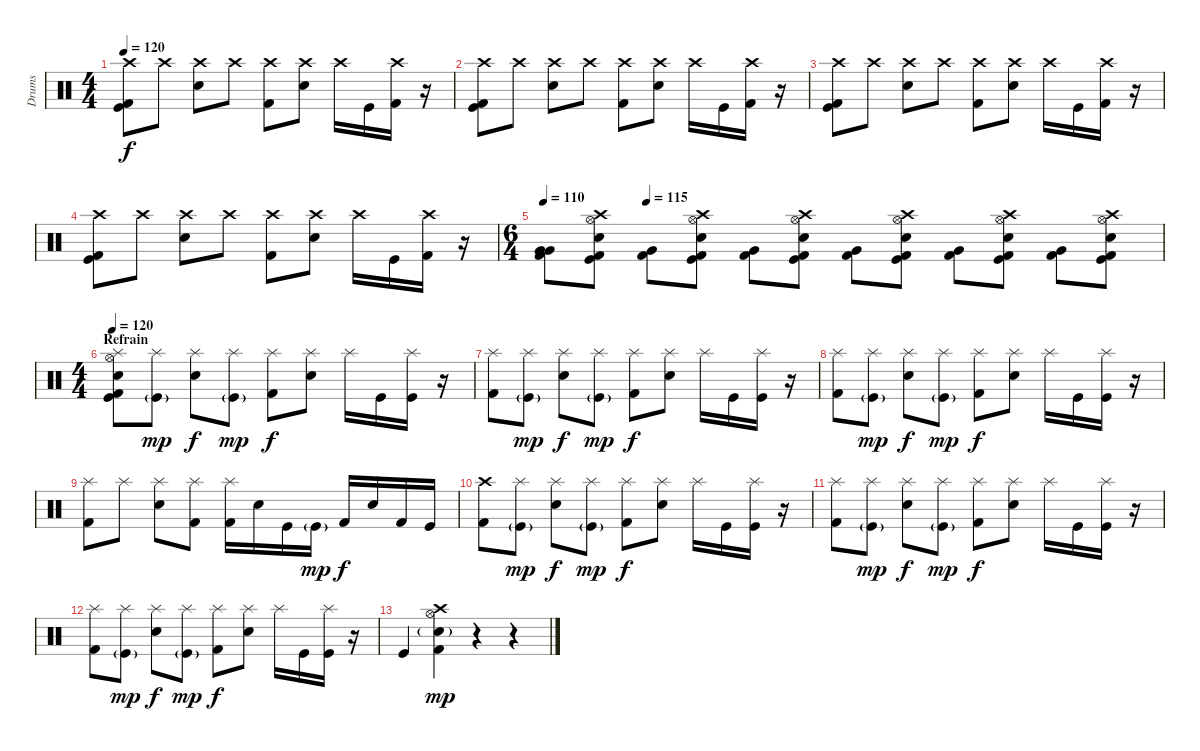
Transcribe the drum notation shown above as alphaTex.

\track ("Drums" "Drums") {instrument percussion}
\staff {score}
\articulation defaults
\ts (4 4)
\tempo 120
\clef neutral
\ks c
("Crash high (hit)" "Kick (hit) 2" "Kick (hit)").8{dy f} "Crash high (hit)".8 ("Crash high (hit)" "Electric Snare (hit)").8 "Crash high (hit)".8 ("Crash high (hit)" "Kick (hit) 2").8 ("Crash high (hit)" "Electric Snare (hit)").8 "Crash high (hit)".16 "Kick (hit)".16 ("Crash high (hit)" "Kick (hit) 2").16 r.16 |
("Crash high (hit)" "Kick (hit) 2" "Kick (hit)").8 "Crash high (hit)".8 ("Crash high (hit)" "Electric Snare (hit)").8 "Crash high (hit)".8 ("Crash high (hit)" "Kick (hit) 2").8 ("Crash high (hit)" "Electric Snare (hit)").8 "Crash high (hit)".16 "Kick (hit)".16 ("Crash high (hit)" "Kick (hit) 2").16 r.16 |
("Crash high (hit)" "Kick (hit) 2" "Kick (hit)").8 "Crash high (hit)".8 ("Crash high (hit)" "Electric Snare (hit)").8 "Crash high (hit)".8 ("Crash high (hit)" "Kick (hit) 2").8 ("Crash high (hit)" "Electric Snare (hit)").8 "Crash high (hit)".16 "Kick (hit)".16 ("Crash high (hit)" "Kick (hit) 2").16 r.16 |
("Crash high (hit)" "Kick (hit) 2" "Kick (hit)").8 "Crash high (hit)".8 ("Crash high (hit)" "Electric Snare (hit)").8 "Crash high (hit)".8 ("Crash high (hit)" "Kick (hit) 2").8 ("Crash high (hit)" "Electric Snare (hit)").8 "Crash high (hit)".16 "Kick (hit)".16 ("Crash high (hit)" "Kick (hit) 2").16 r.16 |
\ts (6 4)
\section ("" "")
\tempo 110
\tempo (115 0.16666666666666666)
("Kick (hit) 2" "Very Low Tom (hit)" "Very Low Tom (hit)").8 ("Crash high (hit)" "Kick (hit) 2" "Kick (hit)" "Hi-Hat (open)" "Electric Snare (hit)").8 ("Kick (hit) 2" "Very Low Tom (hit)").8 ("Crash high (hit)" "Kick (hit) 2" "Kick (hit)" "Hi-Hat (open)" "Electric Snare (hit)").8 ("Kick (hit) 2" "Very Low Tom (hit)").8 ("Crash high (hit)" "Kick (hit) 2" "Kick (hit)" "Hi-Hat (open)" "Electric Snare (hit)").8 ("Kick (hit) 2" "Very Low Tom (hit)").8 ("Crash high (hit)" "Kick (hit) 2" "Kick (hit)" "Hi-Hat (open)" "Electric Snare (hit)").8 ("Kick (hit) 2" "Very Low Tom (hit)").8 ("Crash high (hit)" "Kick (hit) 2" "Kick (hit)" "Hi-Hat (open)" "Electric Snare (hit)").8 ("Kick (hit) 2" "Very Low Tom (hit)").8 ("Crash high (hit)" "Kick (hit) 2" "Kick (hit)" "Hi-Hat (open)" "Electric Snare (hit)").8 |
\ts (4 4)
\section ("" "Refrain")
\tempo 120
("Hi-Hat (open)" "Kick (hit)" "Splash (hit)" "Electric Snare (hit)" "Kick (hit) 2").8 ("Splash (hit)" "Kick (hit)"{g}).8{dy mp} ("Splash (hit)" "Electric Snare (hit)").8{dy f} ("Splash (hit)" "Kick (hit)"{g}).8{dy mp} ("Splash (hit)" "Kick (hit) 2").8{dy f} ("Splash (hit)" "Electric Snare (hit)").8 "Splash (hit)".16 "Kick (hit)".16 ("Splash (hit)" "Kick (hit)").16 r.16 |
("Splash (hit)" "Kick (hit) 2").8 ("Splash (hit)" "Kick (hit)"{g}).8{dy mp} ("Splash (hit)" "Electric Snare (hit)").8{dy f} ("Splash (hit)" "Kick (hit)"{g}).8{dy mp} ("Splash (hit)" "Kick (hit) 2").8{dy f} ("Splash (hit)" "Electric Snare (hit)").8 "Splash (hit)".16 "Kick (hit)".16 ("Splash (hit)" "Kick (hit)").16 r.16 |
("Splash (hit)" "Kick (hit) 2").8 ("Splash (hit)" "Kick (hit)"{g}).8{dy mp} ("Splash (hit)" "Electric Snare (hit)").8{dy f} ("Splash (hit)" "Kick (hit)"{g}).8{dy mp} ("Splash (hit)" "Kick (hit) 2").8{dy f} ("Splash (hit)" "Electric Snare (hit)").8 "Splash (hit)".16 "Kick (hit)".16 ("Splash (hit)" "Kick (hit)").16 r.16 |
("Splash (hit)" "Kick (hit) 2").8 "Splash (hit)".8 ("Splash (hit)" "Electric Snare (hit)").8 ("Splash (hit)" "Kick (hit) 2").8 ("Splash (hit)" "Kick (hit) 2").16 "Electric Snare (hit)".16 "Kick (hit)".16 "Kick (hit)"{g}.16{dy mp} "Kick (hit) 2".16{dy f} "Electric Snare (hit)".16 "Kick (hit) 2".16 "Kick (hit)".16 |
("Crash high (hit)" "Kick (hit) 2").8 ("Splash (hit)" "Kick (hit)"{g}).8{dy mp} ("Splash (hit)" "Electric Snare (hit)").8{dy f} ("Splash (hit)" "Kick (hit)"{g}).8{dy mp} ("Splash (hit)" "Kick (hit) 2").8{dy f} ("Splash (hit)" "Electric Snare (hit)").8 "Splash (hit)".16 "Kick (hit)".16 ("Splash (hit)" "Kick (hit)").16 r.16 |
("Splash (hit)" "Kick (hit) 2").8 ("Splash (hit)" "Kick (hit)"{g}).8{dy mp} ("Splash (hit)" "Electric Snare (hit)").8{dy f} ("Splash (hit)" "Kick (hit)"{g}).8{dy mp} ("Splash (hit)" "Kick (hit) 2").8{dy f} ("Splash (hit)" "Electric Snare (hit)").8 "Splash (hit)".16 "Kick (hit)".16 ("Splash (hit)" "Kick (hit)").16 r.16 |
("Splash (hit)" "Kick (hit) 2").8 ("Splash (hit)" "Kick (hit)"{g}).8{dy mp} ("Splash (hit)" "Electric Snare (hit)").8{dy f} ("Splash (hit)" "Kick (hit)"{g}).8{dy mp} ("Splash (hit)" "Kick (hit) 2").8{dy f} ("Splash (hit)" "Electric Snare (hit)").8 "Splash (hit)".16 "Kick (hit)".16 ("Splash (hit)" "Kick (hit)").16 r.16 |
"Kick (hit)".4 ("Hi-Hat (open)" "Crash high (hit)" "Kick (hit) 2" "Electric Snare (hit)"{g}).4{dy mp} r.4 r.4
